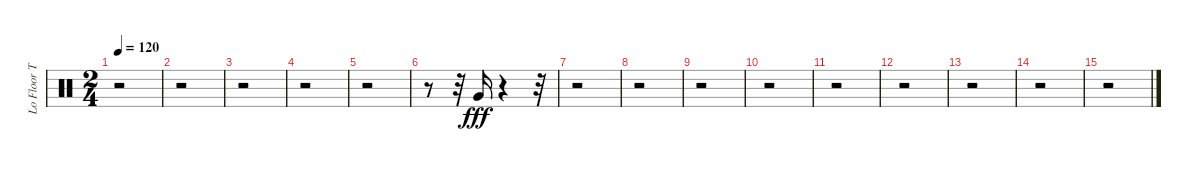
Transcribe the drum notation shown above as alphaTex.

\track ("Lo Floor Tom (1) (1) (1) (1)" "Lo Floor T") {instrument percussion}
\staff {score}
\articulation defaults
\ts (2 4)
\tempo 120
\clef neutral
\ks c
r.2{dy fff} |
r.2 |
r.2 |
r.2 |
r.2 |
r.8 r.32 "Very Low Tom (hit)".16 r.4 r.32 |
r.2 |
r.2 |
r.2 |
r.2 |
r.2 |
r.2 |
r.2 |
r.2 |
r.2
